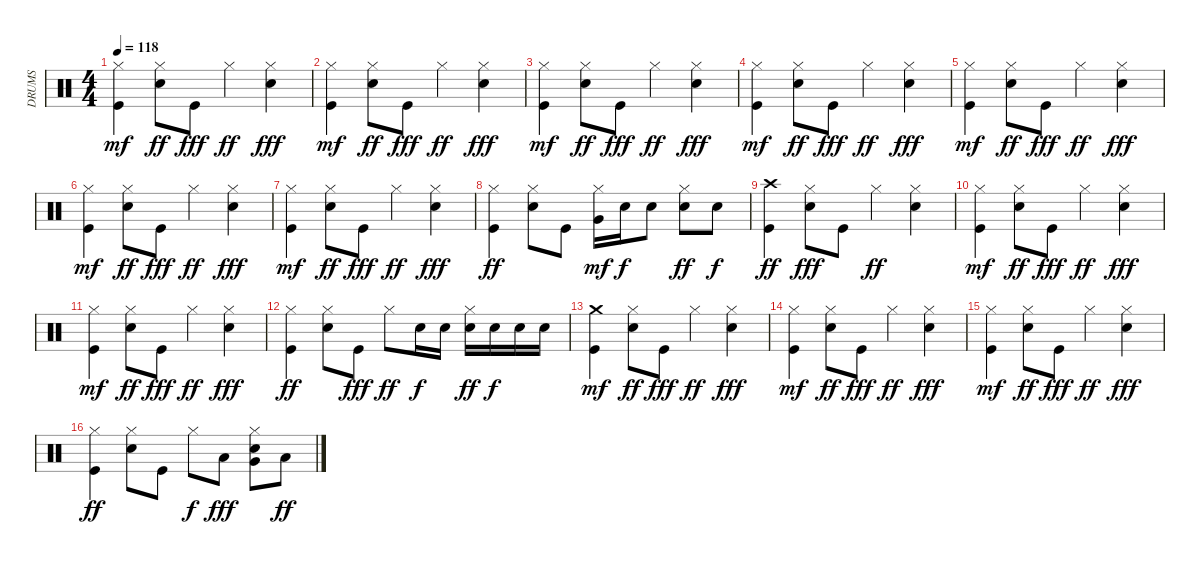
\track ("DRUMS" "DRUMS") {instrument percussion}
\staff {score}
\articulation defaults
\ts (4 4)
\tempo 118
\clef neutral
\ks c
("Kick (hit)" "Hi-Hat (closed)").4{dy mf} ("Electric Snare (hit)" "Hi-Hat (closed)").8{dy ff} "Kick (hit)".8{dy fff} "Hi-Hat (closed)".4{dy ff} ("Electric Snare (hit)" "Hi-Hat (closed)").4{dy fff} |
("Kick (hit)" "Hi-Hat (closed)").4{dy mf} ("Electric Snare (hit)" "Hi-Hat (closed)").8{dy ff} "Kick (hit)".8{dy fff} "Hi-Hat (closed)".4{dy ff} ("Electric Snare (hit)" "Hi-Hat (closed)").4{dy fff} |
("Kick (hit)" "Hi-Hat (closed)").4{dy mf} ("Electric Snare (hit)" "Hi-Hat (closed)").8{dy ff} "Kick (hit)".8{dy fff} "Hi-Hat (closed)".4{dy ff} ("Electric Snare (hit)" "Hi-Hat (closed)").4{dy fff} |
("Kick (hit)" "Hi-Hat (closed)").4{dy mf} ("Electric Snare (hit)" "Hi-Hat (closed)").8{dy ff} "Kick (hit)".8{dy fff} "Hi-Hat (closed)".4{dy ff} ("Electric Snare (hit)" "Hi-Hat (closed)").4{dy fff} |
("Kick (hit)" "Hi-Hat (closed)").4{dy mf} ("Electric Snare (hit)" "Hi-Hat (closed)").8{dy ff} "Kick (hit)".8{dy fff} "Hi-Hat (closed)".4{dy ff} ("Electric Snare (hit)" "Hi-Hat (closed)").4{dy fff} |
("Kick (hit)" "Hi-Hat (closed)").4{dy mf} ("Electric Snare (hit)" "Hi-Hat (closed)").8{dy ff} "Kick (hit)".8{dy fff} "Hi-Hat (closed)".4{dy ff} ("Electric Snare (hit)" "Hi-Hat (closed)").4{dy fff} |
("Kick (hit)" "Hi-Hat (closed)").4{dy mf} ("Electric Snare (hit)" "Hi-Hat (closed)").8{dy ff} "Kick (hit)".8{dy fff} "Hi-Hat (closed)".4{dy ff} ("Electric Snare (hit)" "Hi-Hat (closed)").4{dy fff} |
("Kick (hit)" "Hi-Hat (closed)").4{dy ff} ("Electric Snare (hit)" "Hi-Hat (closed)").8 "Kick (hit)".8 ("Hi-Hat (closed)" "Very Low Tom (hit)").16{dy mf} "Electric Snare (hit)".16{dy f} "Electric Snare (hit)".8 ("Electric Snare (hit)" "Hi-Hat (closed)").8{dy ff} "Electric Snare (hit)".8{dy f} |
("Kick (hit)" "Crash high (hit)").4{dy ff} ("Electric Snare (hit)" "Hi-Hat (closed)").8{dy fff} "Kick (hit)".8 "Hi-Hat (closed)".4{dy ff} ("Electric Snare (hit)" "Hi-Hat (closed)").4 |
("Kick (hit)" "Hi-Hat (closed)").4{dy mf} ("Electric Snare (hit)" "Hi-Hat (closed)").8{dy ff} "Kick (hit)".8{dy fff} "Hi-Hat (closed)".4{dy ff} ("Electric Snare (hit)" "Hi-Hat (closed)").4{dy fff} |
("Kick (hit)" "Hi-Hat (closed)").4{dy mf} ("Electric Snare (hit)" "Hi-Hat (closed)").8{dy ff} "Kick (hit)".8{dy fff} "Hi-Hat (closed)".4{dy ff} ("Electric Snare (hit)" "Hi-Hat (closed)").4{dy fff} |
("Kick (hit)" "Hi-Hat (closed)").4{dy ff} ("Electric Snare (hit)" "Hi-Hat (closed)").8 "Kick (hit)".8{dy fff} "Hi-Hat (closed)".8{dy ff} "Electric Snare (hit)".16{dy f} "Electric Snare (hit)".16 ("Electric Snare (hit)" "Hi-Hat (closed)").16{dy ff} "Electric Snare (hit)".16{dy f} "Electric Snare (hit)".16 "Electric Snare (hit)".16 |
("Kick (hit)" "Crash medium (hit)").4{dy mf} ("Electric Snare (hit)" "Hi-Hat (closed)").8{dy ff} "Kick (hit)".8{dy fff} "Hi-Hat (closed)".4{dy ff} ("Electric Snare (hit)" "Hi-Hat (closed)").4{dy fff} |
("Kick (hit)" "Hi-Hat (closed)").4{dy mf} ("Electric Snare (hit)" "Hi-Hat (closed)").8{dy ff} "Kick (hit)".8{dy fff} "Hi-Hat (closed)".4{dy ff} ("Electric Snare (hit)" "Hi-Hat (closed)").4{dy fff} |
("Kick (hit)" "Hi-Hat (closed)").4{dy mf} ("Electric Snare (hit)" "Hi-Hat (closed)").8{dy ff} "Kick (hit)".8{dy fff} "Hi-Hat (closed)".4{dy ff} ("Electric Snare (hit)" "Hi-Hat (closed)").4{dy fff} |
("Kick (hit)" "Hi-Hat (closed)").4{dy ff} ("Electric Snare (hit)" "Hi-Hat (closed)").8 "Kick (hit)".8 "Hi-Hat (closed)".8{dy f} "Low Tom (hit)".8{dy fff} ("Electric Snare (hit)" "Hi-Hat (closed)" "Very Low Tom (hit)").8 "Low Floor Tom (hit)".8{dy ff}
